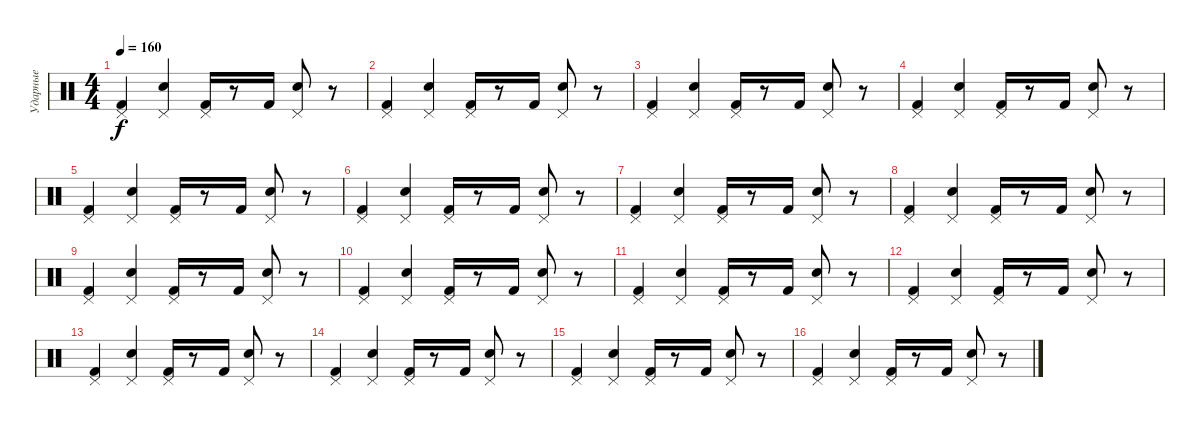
\track ("Ударные" "Ударные") {instrument percussion}
\staff {score}
\articulation defaults
\ts (4 4)
\tempo 160
\clef neutral
\ks c
("Pedal Hi-Hat (hit)" "Kick (hit) 2").4{dy f} ("Pedal Hi-Hat (hit)" "Snare (hit) 2").4 ("Pedal Hi-Hat (hit)" "Kick (hit) 2").16 r.8 "Kick (hit) 2".16 ("Pedal Hi-Hat (hit)" "Snare (hit) 2").8 r.8 |
("Pedal Hi-Hat (hit)" "Kick (hit) 2").4 ("Pedal Hi-Hat (hit)" "Snare (hit) 2").4 ("Pedal Hi-Hat (hit)" "Kick (hit) 2").16 r.8 "Kick (hit) 2".16 ("Pedal Hi-Hat (hit)" "Snare (hit) 2").8 r.8 |
("Pedal Hi-Hat (hit)" "Kick (hit) 2").4 ("Pedal Hi-Hat (hit)" "Snare (hit) 2").4 ("Pedal Hi-Hat (hit)" "Kick (hit) 2").16 r.8 "Kick (hit) 2".16 ("Pedal Hi-Hat (hit)" "Snare (hit) 2").8 r.8 |
("Pedal Hi-Hat (hit)" "Kick (hit) 2").4 ("Pedal Hi-Hat (hit)" "Snare (hit) 2").4 ("Pedal Hi-Hat (hit)" "Kick (hit) 2").16 r.8 "Kick (hit) 2".16 ("Pedal Hi-Hat (hit)" "Snare (hit) 2").8 r.8 |
("Pedal Hi-Hat (hit)" "Kick (hit) 2").4 ("Pedal Hi-Hat (hit)" "Snare (hit) 2").4 ("Pedal Hi-Hat (hit)" "Kick (hit) 2").16 r.8 "Kick (hit) 2".16 ("Pedal Hi-Hat (hit)" "Snare (hit) 2").8 r.8 |
("Pedal Hi-Hat (hit)" "Kick (hit) 2").4 ("Pedal Hi-Hat (hit)" "Snare (hit) 2").4 ("Pedal Hi-Hat (hit)" "Kick (hit) 2").16 r.8 "Kick (hit) 2".16 ("Pedal Hi-Hat (hit)" "Snare (hit) 2").8 r.8 |
("Pedal Hi-Hat (hit)" "Kick (hit) 2").4 ("Pedal Hi-Hat (hit)" "Snare (hit) 2").4 ("Pedal Hi-Hat (hit)" "Kick (hit) 2").16 r.8 "Kick (hit) 2".16 ("Pedal Hi-Hat (hit)" "Snare (hit) 2").8 r.8 |
("Pedal Hi-Hat (hit)" "Kick (hit) 2").4 ("Pedal Hi-Hat (hit)" "Snare (hit) 2").4 ("Pedal Hi-Hat (hit)" "Kick (hit) 2").16 r.8 "Kick (hit) 2".16 ("Pedal Hi-Hat (hit)" "Snare (hit) 2").8 r.8 |
("Pedal Hi-Hat (hit)" "Kick (hit) 2").4 ("Pedal Hi-Hat (hit)" "Snare (hit) 2").4 ("Pedal Hi-Hat (hit)" "Kick (hit) 2").16 r.8 "Kick (hit) 2".16 ("Pedal Hi-Hat (hit)" "Snare (hit) 2").8 r.8 |
("Pedal Hi-Hat (hit)" "Kick (hit) 2").4 ("Pedal Hi-Hat (hit)" "Snare (hit) 2").4 ("Pedal Hi-Hat (hit)" "Kick (hit) 2").16 r.8 "Kick (hit) 2".16 ("Pedal Hi-Hat (hit)" "Snare (hit) 2").8 r.8 |
("Pedal Hi-Hat (hit)" "Kick (hit) 2").4 ("Pedal Hi-Hat (hit)" "Snare (hit) 2").4 ("Pedal Hi-Hat (hit)" "Kick (hit) 2").16 r.8 "Kick (hit) 2".16 ("Pedal Hi-Hat (hit)" "Snare (hit) 2").8 r.8 |
("Pedal Hi-Hat (hit)" "Kick (hit) 2").4 ("Pedal Hi-Hat (hit)" "Snare (hit) 2").4 ("Pedal Hi-Hat (hit)" "Kick (hit) 2").16 r.8 "Kick (hit) 2".16 ("Pedal Hi-Hat (hit)" "Snare (hit) 2").8 r.8 |
("Pedal Hi-Hat (hit)" "Kick (hit) 2").4 ("Pedal Hi-Hat (hit)" "Snare (hit) 2").4 ("Pedal Hi-Hat (hit)" "Kick (hit) 2").16 r.8 "Kick (hit) 2".16 ("Pedal Hi-Hat (hit)" "Snare (hit) 2").8 r.8 |
("Pedal Hi-Hat (hit)" "Kick (hit) 2").4 ("Pedal Hi-Hat (hit)" "Snare (hit) 2").4 ("Pedal Hi-Hat (hit)" "Kick (hit) 2").16 r.8 "Kick (hit) 2".16 ("Pedal Hi-Hat (hit)" "Snare (hit) 2").8 r.8 |
("Pedal Hi-Hat (hit)" "Kick (hit) 2").4 ("Pedal Hi-Hat (hit)" "Snare (hit) 2").4 ("Pedal Hi-Hat (hit)" "Kick (hit) 2").16 r.8 "Kick (hit) 2".16 ("Pedal Hi-Hat (hit)" "Snare (hit) 2").8 r.8 |
("Pedal Hi-Hat (hit)" "Kick (hit) 2").4 ("Pedal Hi-Hat (hit)" "Snare (hit) 2").4 ("Pedal Hi-Hat (hit)" "Kick (hit) 2").16 r.8 "Kick (hit) 2".16 ("Pedal Hi-Hat (hit)" "Snare (hit) 2").8 r.8
